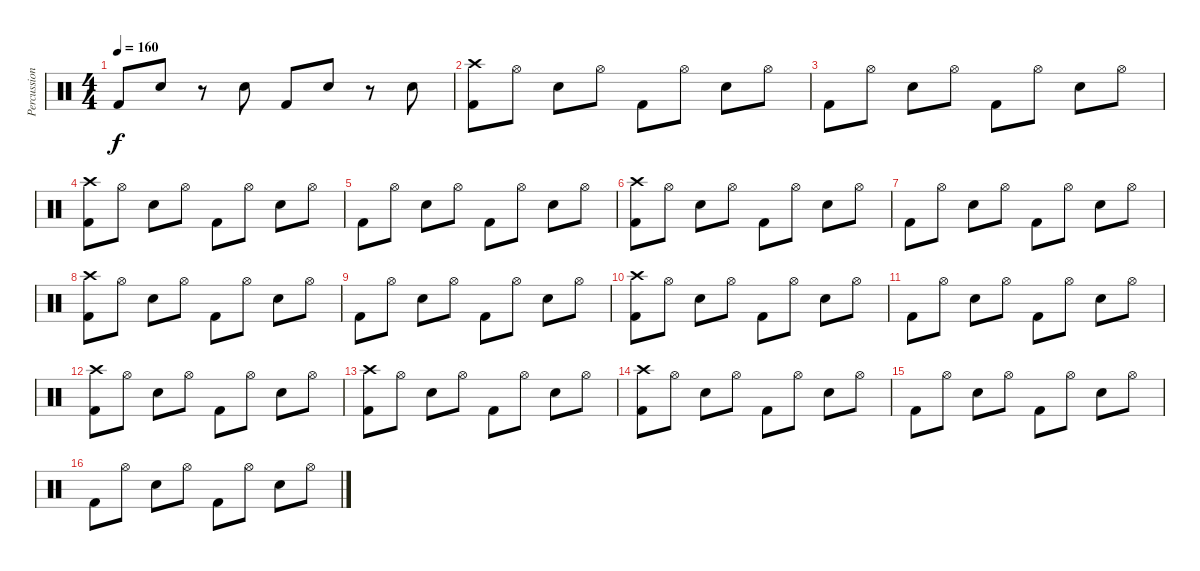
\track ("Percussion" "Percussion") {instrument percussion}
\staff {score}
\articulation defaults
\ts (4 4)
\tempo 160
\clef neutral
\ks c "Kick (hit) 2".8{dy f} "Electric Snare (hit)".8
r.8 "Electric Snare (hit)".8 "Kick (hit) 2".8 "Electric Snare (hit)".8 r.8 "Electric Snare (hit)".8 |
("Kick (hit) 2" "Crash high (hit)").8 "Hi-Hat (open)".8 "Electric Snare (hit)".8 "Hi-Hat (open)".8 "Kick (hit) 2".8 "Hi-Hat (open)".8 "Electric Snare (hit)".8 "Hi-Hat (open)".8 |
"Kick (hit) 2".8 "Hi-Hat (open)".8 "Electric Snare (hit)".8 "Hi-Hat (open)".8 "Kick (hit) 2".8 "Hi-Hat (open)".8 "Electric Snare (hit)".8 "Hi-Hat (open)".8 |
("Kick (hit) 2" "Crash high (hit)").8 "Hi-Hat (open)".8 "Electric Snare (hit)".8 "Hi-Hat (open)".8 "Kick (hit) 2".8 "Hi-Hat (open)".8 "Electric Snare (hit)".8 "Hi-Hat (open)".8 |
"Kick (hit) 2".8 "Hi-Hat (open)".8 "Electric Snare (hit)".8 "Hi-Hat (open)".8 "Kick (hit) 2".8 "Hi-Hat (open)".8 "Electric Snare (hit)".8 "Hi-Hat (open)".8 |
("Kick (hit) 2" "Crash high (hit)").8 "Hi-Hat (open)".8 "Electric Snare (hit)".8 "Hi-Hat (open)".8 "Kick (hit) 2".8 "Hi-Hat (open)".8 "Electric Snare (hit)".8 "Hi-Hat (open)".8 |
"Kick (hit) 2".8 "Hi-Hat (open)".8 "Electric Snare (hit)".8 "Hi-Hat (open)".8 "Kick (hit) 2".8 "Hi-Hat (open)".8 "Electric Snare (hit)".8 "Hi-Hat (open)".8 |
("Kick (hit) 2" "Crash high (hit)").8 "Hi-Hat (open)".8 "Electric Snare (hit)".8 "Hi-Hat (open)".8 "Kick (hit) 2".8 "Hi-Hat (open)".8 "Electric Snare (hit)".8 "Hi-Hat (open)".8 |
"Kick (hit) 2".8 "Hi-Hat (open)".8 "Electric Snare (hit)".8 "Hi-Hat (open)".8 "Kick (hit) 2".8 "Hi-Hat (open)".8 "Electric Snare (hit)".8 "Hi-Hat (open)".8 |
("Kick (hit) 2" "Crash high (hit)").8 "Hi-Hat (open)".8 "Electric Snare (hit)".8 "Hi-Hat (open)".8 "Kick (hit) 2".8 "Hi-Hat (open)".8 "Electric Snare (hit)".8 "Hi-Hat (open)".8 |
"Kick (hit) 2".8 "Hi-Hat (open)".8 "Electric Snare (hit)".8 "Hi-Hat (open)".8 "Kick (hit) 2".8 "Hi-Hat (open)".8 "Electric Snare (hit)".8 "Hi-Hat (open)".8 |
("Kick (hit) 2" "Crash high (hit)").8 "Hi-Hat (open)".8 "Electric Snare (hit)".8 "Hi-Hat (open)".8 "Kick (hit) 2".8 "Hi-Hat (open)".8 "Electric Snare (hit)".8 "Hi-Hat (open)".8 |
("Kick (hit) 2" "Crash high (hit)").8 "Hi-Hat (open)".8 "Electric Snare (hit)".8 "Hi-Hat (open)".8 "Kick (hit) 2".8 "Hi-Hat (open)".8 "Electric Snare (hit)".8 "Hi-Hat (open)".8 |
("Kick (hit) 2" "Crash high (hit)").8 "Hi-Hat (open)".8 "Electric Snare (hit)".8 "Hi-Hat (open)".8 "Kick (hit) 2".8 "Hi-Hat (open)".8 "Electric Snare (hit)".8 "Hi-Hat (open)".8 |
"Kick (hit) 2".8 "Hi-Hat (open)".8 "Electric Snare (hit)".8 "Hi-Hat (open)".8 "Kick (hit) 2".8 "Hi-Hat (open)".8 "Electric Snare (hit)".8 "Hi-Hat (open)".8 |
"Kick (hit) 2".8 "Hi-Hat (open)".8 "Electric Snare (hit)".8 "Hi-Hat (open)".8 "Kick (hit) 2".8 "Hi-Hat (open)".8 "Electric Snare (hit)".8 "Hi-Hat (open)".8
